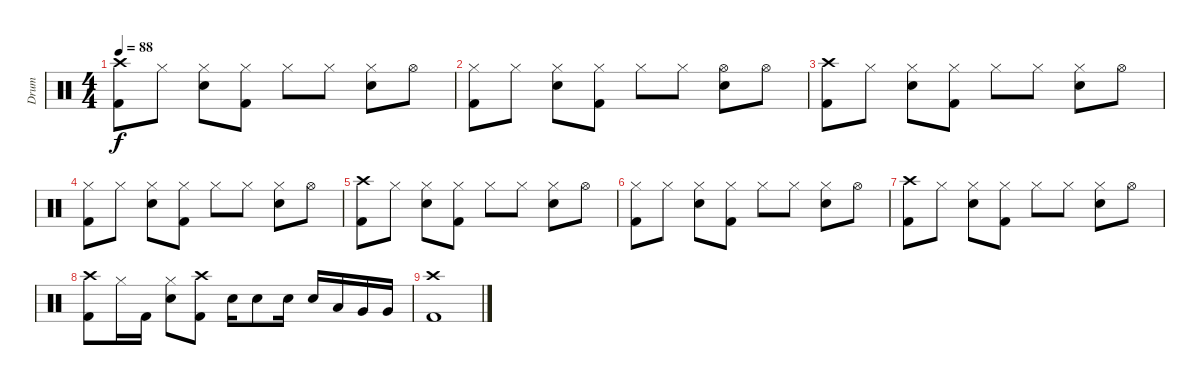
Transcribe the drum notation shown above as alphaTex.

\track ("Drum" "Drum") {instrument percussion}
\staff {score}
\articulation defaults
\ts (4 4)
\tempo 88
\clef neutral
\ks c
("Crash high (hit)" "Kick (hit) 2").8{dy f} "Hi-Hat (closed)".8 ("Hi-Hat (closed)" "Electric Snare (hit)").8 ("Hi-Hat (closed)" "Kick (hit) 2").8 "Hi-Hat (closed)".8 "Hi-Hat (closed)".8 ("Hi-Hat (closed)" "Electric Snare (hit)").8 "Hi-Hat (open)".8 |
("Hi-Hat (closed)" "Kick (hit) 2").8 "Hi-Hat (closed)".8 ("Hi-Hat (closed)" "Electric Snare (hit)").8 ("Hi-Hat (closed)" "Kick (hit) 2").8 "Hi-Hat (closed)".8 "Hi-Hat (closed)".8 ("Hi-Hat (open)" "Electric Snare (hit)").8 "Hi-Hat (open)".8 |
("Crash high (hit)" "Kick (hit) 2").8 "Hi-Hat (closed)".8 ("Hi-Hat (closed)" "Electric Snare (hit)").8 ("Hi-Hat (closed)" "Kick (hit) 2").8 "Hi-Hat (closed)".8 "Hi-Hat (closed)".8 ("Hi-Hat (closed)" "Electric Snare (hit)").8 "Hi-Hat (open)".8 |
("Hi-Hat (closed)" "Kick (hit) 2").8 "Hi-Hat (closed)".8 ("Hi-Hat (closed)" "Electric Snare (hit)").8 ("Hi-Hat (closed)" "Kick (hit) 2").8 "Hi-Hat (closed)".8 "Hi-Hat (closed)".8 ("Hi-Hat (closed)" "Electric Snare (hit)").8 "Hi-Hat (open)".8 |
("Crash high (hit)" "Kick (hit) 2").8 "Hi-Hat (closed)".8 ("Hi-Hat (closed)" "Electric Snare (hit)").8 ("Hi-Hat (closed)" "Kick (hit) 2").8 "Hi-Hat (closed)".8 "Hi-Hat (closed)".8 ("Hi-Hat (closed)" "Electric Snare (hit)").8 "Hi-Hat (open)".8 |
("Hi-Hat (closed)" "Kick (hit) 2").8 "Hi-Hat (closed)".8 ("Hi-Hat (closed)" "Electric Snare (hit)").8 ("Hi-Hat (closed)" "Kick (hit) 2").8 "Hi-Hat (closed)".8 "Hi-Hat (closed)".8 ("Hi-Hat (closed)" "Electric Snare (hit)").8 "Hi-Hat (open)".8 |
("Crash high (hit)" "Kick (hit) 2").8 "Hi-Hat (closed)".8 ("Hi-Hat (closed)" "Electric Snare (hit)").8 ("Hi-Hat (closed)" "Kick (hit) 2").8 "Hi-Hat (closed)".8 "Hi-Hat (closed)".8 ("Hi-Hat (closed)" "Electric Snare (hit)").8 "Hi-Hat (open)".8 |
("Crash high (hit)" "Kick (hit) 2").8 "Hi-Hat (closed)".16 "Kick (hit) 2".16 ("Hi-Hat (closed)" "Electric Snare (hit)").8 ("Crash high (hit)" "Kick (hit) 2").8 "Electric Snare (hit)".16 "Electric Snare (hit)".8 "Electric Snare (hit)".16 "Electric Snare (hit)".16 "Low Tom (hit)".16 "Very Low Tom (hit)".16 "Very Low Tom (hit)".16 |
("Crash high (hit)" "Kick (hit) 2").1
